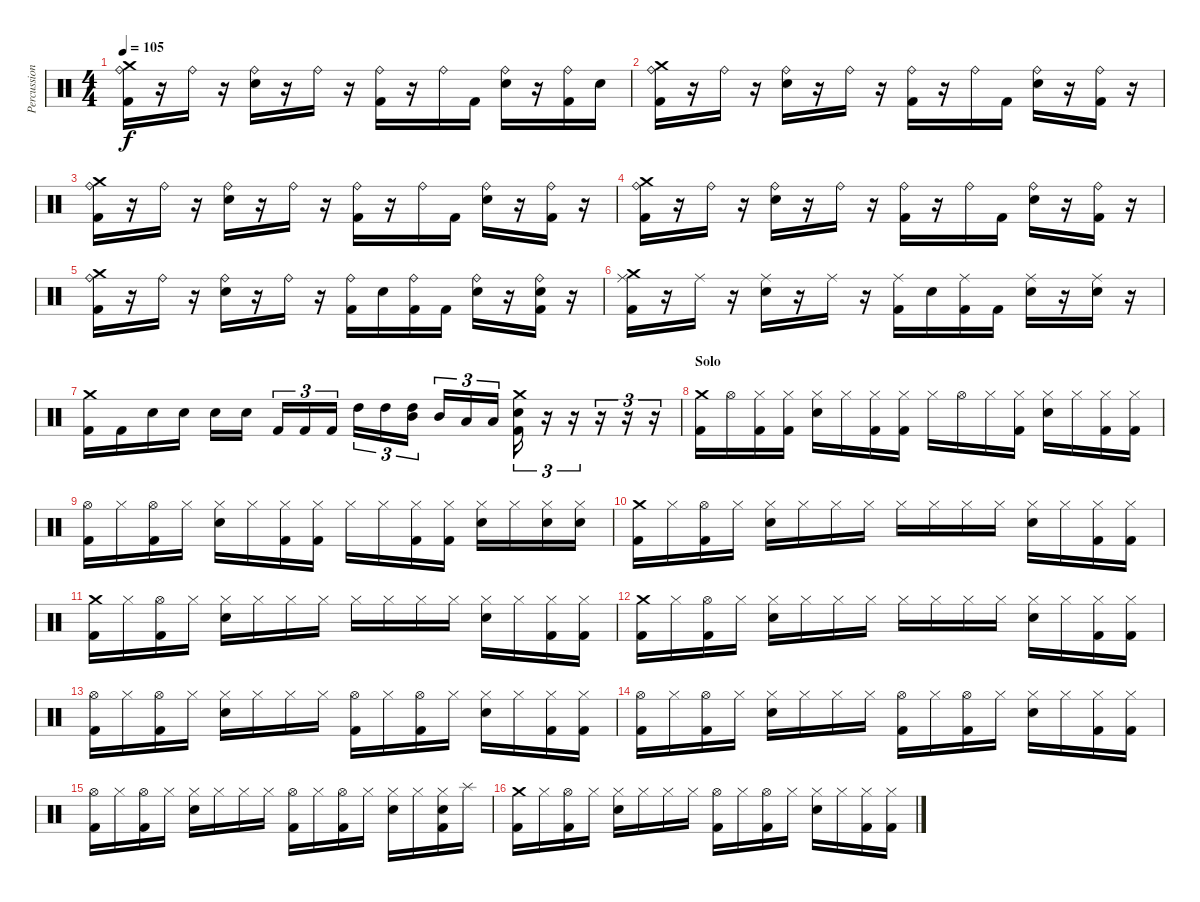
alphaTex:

\track ("Percussion" "Percussion") {instrument percussion}
\staff {score}
\articulation defaults
\ts (4 4)
\tempo 105
\clef neutral
\ks c
("Ride (bell)" "Crash medium (hit)" "Kick (hit) 2").16{dy f} r.16 "Ride (bell)".16 r.16 ("Ride (bell)" "Snare (hit) 2").16 r.16 "Ride (bell)".16 r.16 ("Ride (bell)" "Kick (hit) 2").16 r.16 "Ride (bell)".16 "Kick (hit) 2".16 ("Ride (bell)" "Snare (hit) 2").16 r.16 ("Ride (bell)" "Kick (hit) 2").16 "Snare (hit) 2".16 |
("Ride (bell)" "Crash medium (hit)" "Kick (hit) 2").16 r.16 "Ride (bell)".16 r.16 ("Ride (bell)" "Snare (hit) 2").16 r.16 "Ride (bell)".16 r.16 ("Ride (bell)" "Kick (hit) 2").16 r.16 "Ride (bell)".16 "Kick (hit) 2".16 ("Ride (bell)" "Snare (hit) 2").16 r.16 ("Ride (bell)" "Kick (hit) 2").16 r.16 |
("Ride (bell)" "Crash medium (hit)" "Kick (hit) 2").16 r.16 "Ride (bell)".16 r.16 ("Ride (bell)" "Snare (hit) 2").16 r.16 "Ride (bell)".16 r.16 ("Ride (bell)" "Kick (hit) 2").16 r.16 "Ride (bell)".16 "Kick (hit) 2".16 ("Ride (bell)" "Snare (hit) 2").16 r.16 ("Ride (bell)" "Kick (hit) 2").16 r.16 |
("Ride (bell)" "Crash medium (hit)" "Kick (hit) 2").16 r.16 "Ride (bell)".16 r.16 ("Ride (bell)" "Snare (hit) 2").16 r.16 "Ride (bell)".16 r.16 ("Ride (bell)" "Kick (hit) 2").16 r.16 "Ride (bell)".16 "Kick (hit) 2".16 ("Ride (bell)" "Snare (hit) 2").16 r.16 ("Ride (bell)" "Kick (hit) 2").16 r.16 |
("Ride (bell)" "Crash medium (hit)" "Kick (hit) 2").16 r.16 "Ride (bell)".16 r.16 ("Ride (bell)" "Snare (hit) 2").16 r.16 "Ride (bell)".16 r.16 ("Ride (bell)" "Kick (hit) 2").16 "Snare (hit) 2".16 ("Ride (bell)" "Kick (hit) 2").16 "Kick (hit) 2".16 ("Ride (bell)" "Snare (hit) 2").16 r.16 ("Ride (bell)" "Snare (hit) 2" "Kick (hit) 2").16 r.16 |
("Ride (middle)" "Crash medium (hit)" "Kick (hit) 2").16 r.16 "Ride (middle)".16 r.16 ("Ride (middle)" "Snare (hit) 2").16 r.16 "Ride (middle)".16 r.16 ("Ride (middle)" "Kick (hit) 2").16 "Snare (hit) 2".16 ("Ride (middle)" "Kick (hit) 2").16 "Kick (hit) 2".16 ("Ride (middle)" "Snare (hit) 2").16 r.16 ("Ride (middle)" "Snare (hit) 2").16 r.16 |
("Crash medium (hit)" "Kick (hit) 2").16 "Kick (hit) 2".16 "Snare (hit) 2".16 "Snare (hit) 2".16 "Snare (hit) 2".16 "Snare (hit) 2".16 "Kick (hit) 2".16{tu (3 2)} "Kick (hit) 2".16{tu (3 2)} "Kick (hit) 2".16{tu (3 2)} "High Tom (hit)".16{tu (3 2)} "High Tom (hit)".16{tu (3 2)} ("High Tom (hit)" "Mid Tom (hit)").16{tu (3 2)} "Mid Tom (hit)".16{tu (3 2)} "Low Tom (hit)".16{tu (3 2)} "Low Tom (hit)".16{tu (3 2)} ("Crash medium (hit)" "Snare (hit) 2" "Kick (hit) 2").16{tu (3 2)} r.16{tu (3 2)} r.16{tu (3 2)} r.16{tu (3 2)} r.16{tu (3 2)} r.16{tu (3 2)} |
\section ("" "Solo")
("Crash medium (hit)" "Kick (hit) 2").16 "Hi-Hat (open)".16 ("Hi-Hat (closed)" "Kick (hit) 2").16 ("Hi-Hat (closed)" "Kick (hit) 2").16 ("Hi-Hat (closed)" "Snare (hit) 2").16 "Hi-Hat (closed)".16 ("Hi-Hat (closed)" "Kick (hit) 2").16 ("Hi-Hat (closed)" "Kick (hit) 2").16 "Hi-Hat (closed)".16 "Hi-Hat (open)".16 "Hi-Hat (closed)".16 ("Hi-Hat (closed)" "Kick (hit) 2").16 ("Hi-Hat (closed)" "Snare (hit) 2").16 "Hi-Hat (closed)".16 ("Hi-Hat (closed)" "Kick (hit) 2").16 ("Hi-Hat (closed)" "Kick (hit) 2").16 |
("Hi-Hat (open)" "Kick (hit) 2").16 "Hi-Hat (closed)".16 ("Hi-Hat (open)" "Kick (hit) 2").16 "Hi-Hat (closed)".16 ("Hi-Hat (closed)" "Snare (hit) 2").16 "Hi-Hat (closed)".16 ("Hi-Hat (closed)" "Kick (hit) 2").16 ("Hi-Hat (closed)" "Kick (hit) 2").16 "Hi-Hat (closed)".16 "Hi-Hat (closed)".16 ("Hi-Hat (closed)" "Kick (hit) 2").16 ("Hi-Hat (closed)" "Kick (hit) 2").16 ("Hi-Hat (closed)" "Snare (hit) 2").16 "Hi-Hat (closed)".16 ("Hi-Hat (closed)" "Snare (hit) 2").16 ("Hi-Hat (closed)" "Snare (hit) 2").16 |
("Crash medium (hit)" "Kick (hit) 2").16 "Hi-Hat (closed)".16 ("Hi-Hat (open)" "Kick (hit) 2").16 "Hi-Hat (closed)".16 ("Hi-Hat (closed)" "Snare (hit) 2").16 "Hi-Hat (closed)".16 "Hi-Hat (closed)".16 "Hi-Hat (closed)".16 "Hi-Hat (closed)".16 "Hi-Hat (closed)".16 "Hi-Hat (closed)".16 "Hi-Hat (closed)".16 ("Hi-Hat (closed)" "Snare (hit) 2").16 "Hi-Hat (closed)".16 ("Hi-Hat (closed)" "Kick (hit) 2").16 ("Hi-Hat (closed)" "Kick (hit) 2").16 |
("Crash medium (hit)" "Kick (hit) 2").16 "Hi-Hat (closed)".16 ("Hi-Hat (open)" "Kick (hit) 2").16 "Hi-Hat (closed)".16 ("Hi-Hat (closed)" "Snare (hit) 2").16 "Hi-Hat (closed)".16 "Hi-Hat (closed)".16 "Hi-Hat (closed)".16 "Hi-Hat (closed)".16 "Hi-Hat (closed)".16 "Hi-Hat (closed)".16 "Hi-Hat (closed)".16 ("Hi-Hat (closed)" "Snare (hit) 2").16 "Hi-Hat (closed)".16 ("Hi-Hat (closed)" "Kick (hit) 2").16 ("Hi-Hat (closed)" "Kick (hit) 2").16 |
("Crash medium (hit)" "Kick (hit) 2").16 "Hi-Hat (closed)".16 ("Hi-Hat (open)" "Kick (hit) 2").16 "Hi-Hat (closed)".16 ("Hi-Hat (closed)" "Snare (hit) 2").16 "Hi-Hat (closed)".16 "Hi-Hat (closed)".16 "Hi-Hat (closed)".16 "Hi-Hat (closed)".16 "Hi-Hat (closed)".16 "Hi-Hat (closed)".16 "Hi-Hat (closed)".16 ("Hi-Hat (closed)" "Snare (hit) 2").16 "Hi-Hat (closed)".16 ("Hi-Hat (closed)" "Kick (hit) 2").16 ("Hi-Hat (closed)" "Kick (hit) 2").16 |
("Hi-Hat (open)" "Kick (hit) 2").16 "Hi-Hat (closed)".16 ("Hi-Hat (open)" "Kick (hit) 2").16 "Hi-Hat (closed)".16 ("Hi-Hat (closed)" "Snare (hit) 2").16 "Hi-Hat (closed)".16 "Hi-Hat (closed)".16 "Hi-Hat (closed)".16 ("Hi-Hat (open)" "Kick (hit) 2").16 "Hi-Hat (closed)".16 ("Hi-Hat (open)" "Kick (hit) 2").16 "Hi-Hat (closed)".16 ("Hi-Hat (closed)" "Snare (hit) 2").16 "Hi-Hat (closed)".16 ("Hi-Hat (closed)" "Kick (hit) 2").16 ("Hi-Hat (closed)" "Kick (hit) 2").16 |
("Hi-Hat (open)" "Kick (hit) 2").16 "Hi-Hat (closed)".16 ("Hi-Hat (open)" "Kick (hit) 2").16 "Hi-Hat (closed)".16 ("Hi-Hat (closed)" "Snare (hit) 2").16 "Hi-Hat (closed)".16 "Hi-Hat (closed)".16 "Hi-Hat (closed)".16 ("Hi-Hat (open)" "Kick (hit) 2").16 "Hi-Hat (closed)".16 ("Hi-Hat (open)" "Kick (hit) 2").16 "Hi-Hat (closed)".16 ("Hi-Hat (closed)" "Snare (hit) 2").16 "Hi-Hat (closed)".16 ("Hi-Hat (closed)" "Kick (hit) 2").16 ("Hi-Hat (closed)" "Kick (hit) 2").16 |
("Hi-Hat (open)" "Kick (hit) 2").16 "Hi-Hat (closed)".16 ("Hi-Hat (open)" "Kick (hit) 2").16 "Hi-Hat (closed)".16 ("Hi-Hat (closed)" "Snare (hit) 2").16 "Hi-Hat (closed)".16 "Hi-Hat (closed)".16 "Hi-Hat (closed)".16 ("Hi-Hat (open)" "Kick (hit) 2").16 "Hi-Hat (closed)".16 ("Hi-Hat (open)" "Kick (hit) 2").16 "Hi-Hat (closed)".16 ("Hi-Hat (closed)" "Snare (hit) 2").16 "Hi-Hat (closed)".16 ("Hi-Hat (closed)" "Snare (hit) 2" "Kick (hit) 2").16 "Splash (hit)".16 |
("Crash medium (hit)" "Kick (hit) 2").16 "Hi-Hat (closed)".16 ("Hi-Hat (open)" "Kick (hit) 2").16 "Hi-Hat (closed)".16 ("Hi-Hat (closed)" "Snare (hit) 2").16 "Hi-Hat (closed)".16 "Hi-Hat (closed)".16 "Hi-Hat (closed)".16 ("Hi-Hat (open)" "Kick (hit) 2").16 "Hi-Hat (closed)".16 ("Hi-Hat (open)" "Kick (hit) 2").16 "Hi-Hat (closed)".16 ("Hi-Hat (closed)" "Snare (hit) 2").16 "Hi-Hat (closed)".16 ("Hi-Hat (closed)" "Kick (hit) 2").16 ("Hi-Hat (closed)" "Kick (hit) 2").16
